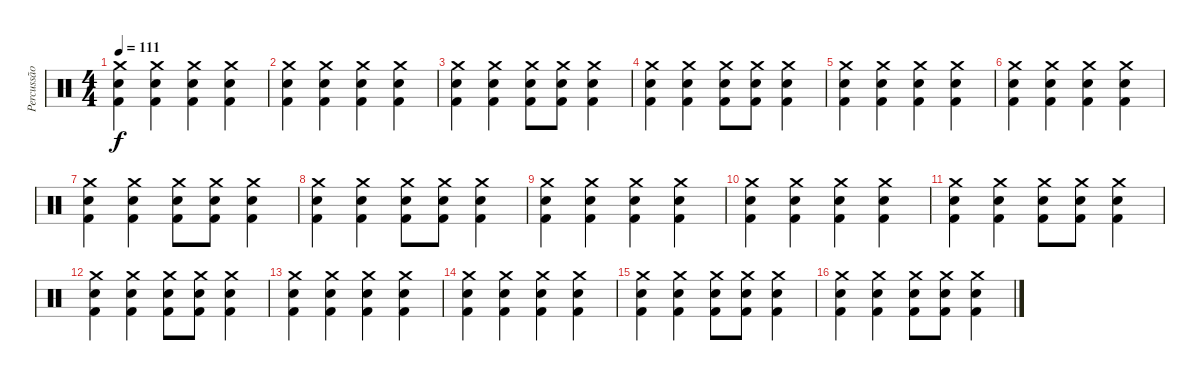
\track ("Percussão" "Percussão") {instrument percussion}
\staff {score}
\articulation defaults
\ts (4 4)
\tempo 111
\clef neutral
\ks c
("Kick (hit) 2" "Electric Snare (hit)" "Crash medium (hit)").4{dy f} ("Kick (hit) 2" "Electric Snare (hit)" "Crash medium (hit)").4 ("Kick (hit) 2" "Electric Snare (hit)" "Crash medium (hit)").4 ("Kick (hit) 2" "Electric Snare (hit)" "Crash medium (hit)").4 |
("Kick (hit) 2" "Electric Snare (hit)" "Crash medium (hit)").4 ("Kick (hit) 2" "Electric Snare (hit)" "Crash medium (hit)").4 ("Kick (hit) 2" "Electric Snare (hit)" "Crash medium (hit)").4 ("Kick (hit) 2" "Electric Snare (hit)" "Crash medium (hit)").4 |
("Kick (hit) 2" "Electric Snare (hit)" "Crash medium (hit)").4 ("Kick (hit) 2" "Electric Snare (hit)" "Crash medium (hit)").4 ("Kick (hit) 2" "Electric Snare (hit)" "Crash medium (hit)").8 ("Kick (hit) 2" "Electric Snare (hit)" "Crash medium (hit)").8 ("Kick (hit) 2" "Electric Snare (hit)" "Crash medium (hit)").4 |
("Kick (hit) 2" "Electric Snare (hit)" "Crash medium (hit)").4 ("Kick (hit) 2" "Electric Snare (hit)" "Crash medium (hit)").4 ("Kick (hit) 2" "Electric Snare (hit)" "Crash medium (hit)").8 ("Kick (hit) 2" "Electric Snare (hit)" "Crash medium (hit)").8 ("Kick (hit) 2" "Electric Snare (hit)" "Crash medium (hit)").4 |
("Kick (hit) 2" "Electric Snare (hit)" "Crash medium (hit)").4 ("Kick (hit) 2" "Electric Snare (hit)" "Crash medium (hit)").4 ("Kick (hit) 2" "Electric Snare (hit)" "Crash medium (hit)").4 ("Kick (hit) 2" "Electric Snare (hit)" "Crash medium (hit)").4 |
("Kick (hit) 2" "Electric Snare (hit)" "Crash medium (hit)").4 ("Kick (hit) 2" "Electric Snare (hit)" "Crash medium (hit)").4 ("Kick (hit) 2" "Electric Snare (hit)" "Crash medium (hit)").4 ("Kick (hit) 2" "Electric Snare (hit)" "Crash medium (hit)").4 |
("Kick (hit) 2" "Electric Snare (hit)" "Crash medium (hit)").4 ("Kick (hit) 2" "Electric Snare (hit)" "Crash medium (hit)").4 ("Kick (hit) 2" "Electric Snare (hit)" "Crash medium (hit)").8 ("Kick (hit) 2" "Electric Snare (hit)" "Crash medium (hit)").8 ("Kick (hit) 2" "Electric Snare (hit)" "Crash medium (hit)").4 |
("Kick (hit) 2" "Electric Snare (hit)" "Crash medium (hit)").4 ("Kick (hit) 2" "Electric Snare (hit)" "Crash medium (hit)").4 ("Kick (hit) 2" "Electric Snare (hit)" "Crash medium (hit)").8 ("Kick (hit) 2" "Electric Snare (hit)" "Crash medium (hit)").8 ("Kick (hit) 2" "Electric Snare (hit)" "Crash medium (hit)").4 |
("Kick (hit) 2" "Electric Snare (hit)" "Crash medium (hit)").4 ("Kick (hit) 2" "Electric Snare (hit)" "Crash medium (hit)").4 ("Kick (hit) 2" "Electric Snare (hit)" "Crash medium (hit)").4 ("Kick (hit) 2" "Electric Snare (hit)" "Crash medium (hit)").4 |
("Kick (hit) 2" "Electric Snare (hit)" "Crash medium (hit)").4 ("Kick (hit) 2" "Electric Snare (hit)" "Crash medium (hit)").4 ("Kick (hit) 2" "Electric Snare (hit)" "Crash medium (hit)").4 ("Kick (hit) 2" "Electric Snare (hit)" "Crash medium (hit)").4 |
("Kick (hit) 2" "Electric Snare (hit)" "Crash medium (hit)").4 ("Kick (hit) 2" "Electric Snare (hit)" "Crash medium (hit)").4 ("Kick (hit) 2" "Electric Snare (hit)" "Crash medium (hit)").8 ("Kick (hit) 2" "Electric Snare (hit)" "Crash medium (hit)").8 ("Kick (hit) 2" "Electric Snare (hit)" "Crash medium (hit)").4 |
("Kick (hit) 2" "Electric Snare (hit)" "Crash medium (hit)").4 ("Kick (hit) 2" "Electric Snare (hit)" "Crash medium (hit)").4 ("Kick (hit) 2" "Electric Snare (hit)" "Crash medium (hit)").8 ("Kick (hit) 2" "Electric Snare (hit)" "Crash medium (hit)").8 ("Kick (hit) 2" "Electric Snare (hit)" "Crash medium (hit)").4 |
("Kick (hit) 2" "Electric Snare (hit)" "Crash medium (hit)").4 ("Kick (hit) 2" "Electric Snare (hit)" "Crash medium (hit)").4 ("Kick (hit) 2" "Electric Snare (hit)" "Crash medium (hit)").4 ("Kick (hit) 2" "Electric Snare (hit)" "Crash medium (hit)").4 |
("Kick (hit) 2" "Electric Snare (hit)" "Crash medium (hit)").4 ("Kick (hit) 2" "Electric Snare (hit)" "Crash medium (hit)").4 ("Kick (hit) 2" "Electric Snare (hit)" "Crash medium (hit)").4 ("Kick (hit) 2" "Electric Snare (hit)" "Crash medium (hit)").4 |
("Kick (hit) 2" "Electric Snare (hit)" "Crash medium (hit)").4 ("Kick (hit) 2" "Electric Snare (hit)" "Crash medium (hit)").4 ("Kick (hit) 2" "Electric Snare (hit)" "Crash medium (hit)").8 ("Kick (hit) 2" "Electric Snare (hit)" "Crash medium (hit)").8 ("Kick (hit) 2" "Electric Snare (hit)" "Crash medium (hit)").4 |
("Kick (hit) 2" "Electric Snare (hit)" "Crash medium (hit)").4 ("Kick (hit) 2" "Electric Snare (hit)" "Crash medium (hit)").4 ("Kick (hit) 2" "Electric Snare (hit)" "Crash medium (hit)").8 ("Kick (hit) 2" "Electric Snare (hit)" "Crash medium (hit)").8 ("Kick (hit) 2" "Electric Snare (hit)" "Crash medium (hit)").4
